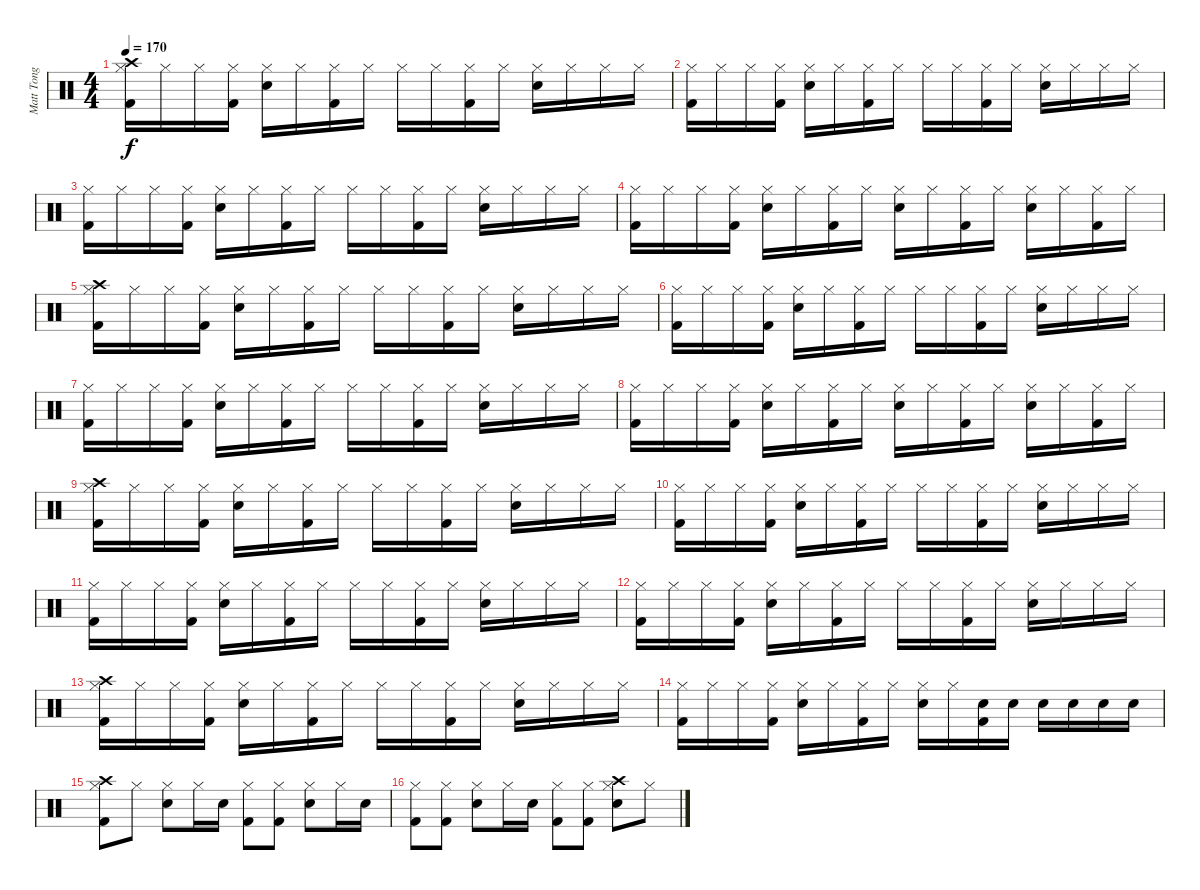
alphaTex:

\track ("Matt Tong" "Matt Tong") {instrument percussion}
\staff {score}
\articulation defaults
\ts (4 4)
\tempo 170
\clef neutral
\ks c
("Crash high (hit)" "Hi-Hat (closed)" "Kick (hit) 2").16{dy f} "Hi-Hat (closed)".16 "Hi-Hat (closed)".16 ("Hi-Hat (closed)" "Kick (hit) 2").16 ("Hi-Hat (closed)" "Electric Snare (hit)").16 "Hi-Hat (closed)".16 ("Hi-Hat (closed)" "Kick (hit) 2").16 "Hi-Hat (closed)".16 "Hi-Hat (closed)".16 "Hi-Hat (closed)".16 ("Hi-Hat (closed)" "Kick (hit) 2").16 "Hi-Hat (closed)".16 ("Hi-Hat (closed)" "Electric Snare (hit)").16 "Hi-Hat (closed)".16 "Hi-Hat (closed)".16 "Hi-Hat (closed)".16 |
("Hi-Hat (closed)" "Kick (hit) 2").16 "Hi-Hat (closed)".16 "Hi-Hat (closed)".16 ("Hi-Hat (closed)" "Kick (hit) 2").16 ("Hi-Hat (closed)" "Electric Snare (hit)").16 "Hi-Hat (closed)".16 ("Hi-Hat (closed)" "Kick (hit) 2").16 "Hi-Hat (closed)".16 "Hi-Hat (closed)".16 "Hi-Hat (closed)".16 ("Hi-Hat (closed)" "Kick (hit) 2").16 "Hi-Hat (closed)".16 ("Hi-Hat (closed)" "Electric Snare (hit)").16 "Hi-Hat (closed)".16 "Hi-Hat (closed)".16 "Hi-Hat (closed)".16 |
("Hi-Hat (closed)" "Kick (hit) 2").16 "Hi-Hat (closed)".16 "Hi-Hat (closed)".16 ("Hi-Hat (closed)" "Kick (hit) 2").16 ("Hi-Hat (closed)" "Electric Snare (hit)").16 "Hi-Hat (closed)".16 ("Hi-Hat (closed)" "Kick (hit) 2").16 "Hi-Hat (closed)".16 "Hi-Hat (closed)".16 "Hi-Hat (closed)".16 ("Hi-Hat (closed)" "Kick (hit) 2").16 "Hi-Hat (closed)".16 ("Hi-Hat (closed)" "Electric Snare (hit)").16 "Hi-Hat (closed)".16 "Hi-Hat (closed)".16 "Hi-Hat (closed)".16 |
("Hi-Hat (closed)" "Kick (hit) 2").16 "Hi-Hat (closed)".16 "Hi-Hat (closed)".16 ("Hi-Hat (closed)" "Kick (hit) 2").16 ("Hi-Hat (closed)" "Electric Snare (hit)").16 "Hi-Hat (closed)".16 ("Hi-Hat (closed)" "Kick (hit) 2").16 "Hi-Hat (closed)".16 ("Hi-Hat (closed)" "Electric Snare (hit)").16 "Hi-Hat (closed)".16 ("Hi-Hat (closed)" "Kick (hit) 2").16 "Hi-Hat (closed)".16 ("Hi-Hat (closed)" "Electric Snare (hit)").16 "Hi-Hat (closed)".16 ("Hi-Hat (closed)" "Kick (hit) 2").16 "Hi-Hat (closed)".16 |
("Crash high (hit)" "Hi-Hat (closed)" "Kick (hit) 2").16 "Hi-Hat (closed)".16 "Hi-Hat (closed)".16 ("Hi-Hat (closed)" "Kick (hit) 2").16 ("Hi-Hat (closed)" "Electric Snare (hit)").16 "Hi-Hat (closed)".16 ("Hi-Hat (closed)" "Kick (hit) 2").16 "Hi-Hat (closed)".16 "Hi-Hat (closed)".16 "Hi-Hat (closed)".16 ("Hi-Hat (closed)" "Kick (hit) 2").16 "Hi-Hat (closed)".16 ("Hi-Hat (closed)" "Electric Snare (hit)").16 "Hi-Hat (closed)".16 "Hi-Hat (closed)".16 "Hi-Hat (closed)".16 |
("Hi-Hat (closed)" "Kick (hit) 2").16 "Hi-Hat (closed)".16 "Hi-Hat (closed)".16 ("Hi-Hat (closed)" "Kick (hit) 2").16 ("Hi-Hat (closed)" "Electric Snare (hit)").16 "Hi-Hat (closed)".16 ("Hi-Hat (closed)" "Kick (hit) 2").16 "Hi-Hat (closed)".16 "Hi-Hat (closed)".16 "Hi-Hat (closed)".16 ("Hi-Hat (closed)" "Kick (hit) 2").16 "Hi-Hat (closed)".16 ("Hi-Hat (closed)" "Electric Snare (hit)").16 "Hi-Hat (closed)".16 "Hi-Hat (closed)".16 "Hi-Hat (closed)".16 |
("Hi-Hat (closed)" "Kick (hit) 2").16 "Hi-Hat (closed)".16 "Hi-Hat (closed)".16 ("Hi-Hat (closed)" "Kick (hit) 2").16 ("Hi-Hat (closed)" "Electric Snare (hit)").16 "Hi-Hat (closed)".16 ("Hi-Hat (closed)" "Kick (hit) 2").16 "Hi-Hat (closed)".16 "Hi-Hat (closed)".16 "Hi-Hat (closed)".16 ("Hi-Hat (closed)" "Kick (hit) 2").16 "Hi-Hat (closed)".16 ("Hi-Hat (closed)" "Electric Snare (hit)").16 "Hi-Hat (closed)".16 "Hi-Hat (closed)".16 "Hi-Hat (closed)".16 |
("Hi-Hat (closed)" "Kick (hit) 2").16 "Hi-Hat (closed)".16 "Hi-Hat (closed)".16 ("Hi-Hat (closed)" "Kick (hit) 2").16 ("Hi-Hat (closed)" "Electric Snare (hit)").16 "Hi-Hat (closed)".16 ("Hi-Hat (closed)" "Kick (hit) 2").16 "Hi-Hat (closed)".16 ("Hi-Hat (closed)" "Electric Snare (hit)").16 "Hi-Hat (closed)".16 ("Hi-Hat (closed)" "Kick (hit) 2").16 "Hi-Hat (closed)".16 ("Hi-Hat (closed)" "Electric Snare (hit)").16 "Hi-Hat (closed)".16 ("Hi-Hat (closed)" "Kick (hit) 2").16 "Hi-Hat (closed)".16 |
("Crash high (hit)" "Hi-Hat (closed)" "Kick (hit) 2").16 "Hi-Hat (closed)".16 "Hi-Hat (closed)".16 ("Hi-Hat (closed)" "Kick (hit) 2").16 ("Hi-Hat (closed)" "Electric Snare (hit)").16 "Hi-Hat (closed)".16 ("Hi-Hat (closed)" "Kick (hit) 2").16 "Hi-Hat (closed)".16 "Hi-Hat (closed)".16 "Hi-Hat (closed)".16 ("Hi-Hat (closed)" "Kick (hit) 2").16 "Hi-Hat (closed)".16 ("Hi-Hat (closed)" "Electric Snare (hit)").16 "Hi-Hat (closed)".16 "Hi-Hat (closed)".16 "Hi-Hat (closed)".16 |
("Hi-Hat (closed)" "Kick (hit) 2").16 "Hi-Hat (closed)".16 "Hi-Hat (closed)".16 ("Hi-Hat (closed)" "Kick (hit) 2").16 ("Hi-Hat (closed)" "Electric Snare (hit)").16 "Hi-Hat (closed)".16 ("Hi-Hat (closed)" "Kick (hit) 2").16 "Hi-Hat (closed)".16 "Hi-Hat (closed)".16 "Hi-Hat (closed)".16 ("Hi-Hat (closed)" "Kick (hit) 2").16 "Hi-Hat (closed)".16 ("Hi-Hat (closed)" "Electric Snare (hit)").16 "Hi-Hat (closed)".16 "Hi-Hat (closed)".16 "Hi-Hat (closed)".16 |
("Hi-Hat (closed)" "Kick (hit) 2").16 "Hi-Hat (closed)".16 "Hi-Hat (closed)".16 ("Hi-Hat (closed)" "Kick (hit) 2").16 ("Hi-Hat (closed)" "Electric Snare (hit)").16 "Hi-Hat (closed)".16 ("Hi-Hat (closed)" "Kick (hit) 2").16 "Hi-Hat (closed)".16 "Hi-Hat (closed)".16 "Hi-Hat (closed)".16 ("Hi-Hat (closed)" "Kick (hit) 2").16 "Hi-Hat (closed)".16 ("Hi-Hat (closed)" "Electric Snare (hit)").16 "Hi-Hat (closed)".16 "Hi-Hat (closed)".16 "Hi-Hat (closed)".16 |
("Hi-Hat (closed)" "Kick (hit) 2").16 "Hi-Hat (closed)".16 "Hi-Hat (closed)".16 ("Hi-Hat (closed)" "Kick (hit) 2").16 ("Hi-Hat (closed)" "Electric Snare (hit)").16 "Hi-Hat (closed)".16 ("Hi-Hat (closed)" "Kick (hit) 2").16 "Hi-Hat (closed)".16 "Hi-Hat (closed)".16 "Hi-Hat (closed)".16 ("Hi-Hat (closed)" "Kick (hit) 2").16 "Hi-Hat (closed)".16 ("Hi-Hat (closed)" "Electric Snare (hit)").16 "Hi-Hat (closed)".16 "Hi-Hat (closed)".16 "Hi-Hat (closed)".16 |
("Crash high (hit)" "Hi-Hat (closed)" "Kick (hit) 2").16 "Hi-Hat (closed)".16 "Hi-Hat (closed)".16 ("Hi-Hat (closed)" "Kick (hit) 2").16 ("Hi-Hat (closed)" "Electric Snare (hit)").16 "Hi-Hat (closed)".16 ("Hi-Hat (closed)" "Kick (hit) 2").16 "Hi-Hat (closed)".16 "Hi-Hat (closed)".16 "Hi-Hat (closed)".16 ("Hi-Hat (closed)" "Kick (hit) 2").16 "Hi-Hat (closed)".16 ("Hi-Hat (closed)" "Electric Snare (hit)").16 "Hi-Hat (closed)".16 "Hi-Hat (closed)".16 "Hi-Hat (closed)".16 |
("Hi-Hat (closed)" "Kick (hit) 2").16 "Hi-Hat (closed)".16 "Hi-Hat (closed)".16 ("Hi-Hat (closed)" "Kick (hit) 2").16 ("Hi-Hat (closed)" "Electric Snare (hit)").16 "Hi-Hat (closed)".16 ("Hi-Hat (closed)" "Kick (hit) 2").16 "Hi-Hat (closed)".16 ("Hi-Hat (closed)" "Electric Snare (hit)").16 "Hi-Hat (closed)".16 ("Electric Snare (hit)" "Kick (hit) 2").16 "Electric Snare (hit)".16 "Electric Snare (hit)".16 "Electric Snare (hit)".16 "Electric Snare (hit)".16 "Electric Snare (hit)".16 |
("Crash high (hit)" "Hi-Hat (closed)" "Kick (hit) 2").8 "Hi-Hat (closed)".8 ("Hi-Hat (closed)" "Electric Snare (hit)").8 "Hi-Hat (closed)".16 "Electric Snare (hit)".16 ("Hi-Hat (closed)" "Kick (hit) 2").8 ("Hi-Hat (closed)" "Kick (hit) 2").8 ("Hi-Hat (closed)" "Electric Snare (hit)").8 "Hi-Hat (closed)".16 "Electric Snare (hit)".16 |
("Hi-Hat (closed)" "Kick (hit) 2").8 ("Hi-Hat (closed)" "Kick (hit) 2").8 ("Hi-Hat (closed)" "Electric Snare (hit)").8 "Hi-Hat (closed)".16 "Electric Snare (hit)".16 ("Hi-Hat (closed)" "Kick (hit) 2").8 ("Hi-Hat (closed)" "Kick (hit) 2").8 ("Crash high (hit)" "Hi-Hat (closed)" "Electric Snare (hit)").8 "Hi-Hat (closed)".8
